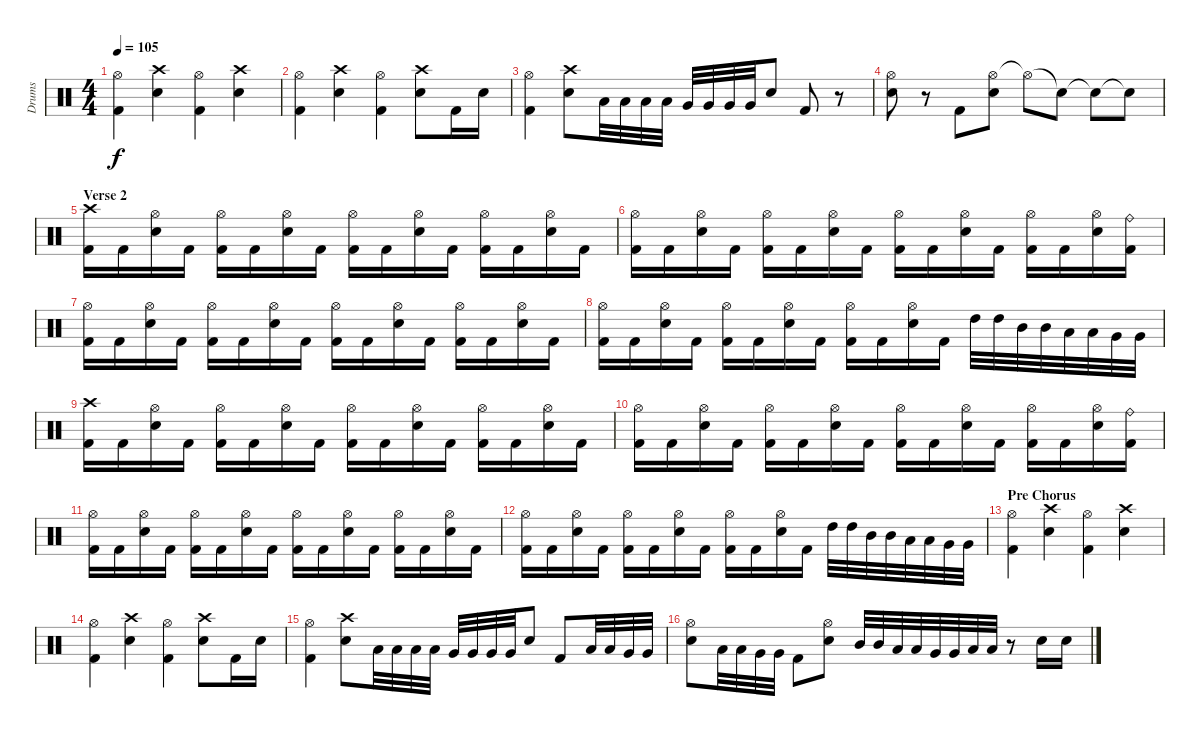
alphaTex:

\track ("Drums" "Drums") {instrument percussion}
\staff {score}
\articulation defaults
\ts (4 4)
\tempo 105
\clef neutral
\ks c
("Hi-Hat (open)" "Kick (hit) 2").4{dy f} ("Crash high (hit)" "Electric Snare (hit)").4 ("Hi-Hat (open)" "Kick (hit) 2").4 ("Crash high (hit)" "Electric Snare (hit)").4 |
("Hi-Hat (open)" "Kick (hit) 2").4 ("Crash high (hit)" "Electric Snare (hit)").4 ("Hi-Hat (open)" "Kick (hit) 2").4 ("Crash high (hit)" "Electric Snare (hit)").8 "Kick (hit) 2".16 "Electric Snare (hit)".16 |
("Hi-Hat (open)" "Kick (hit) 2").4 ("Crash high (hit)" "Electric Snare (hit)").8 "Low Tom (hit)".32 "Low Tom (hit)".32 "Low Tom (hit)".32 "Low Tom (hit)".32 "Very Low Tom (hit)".32 "Very Low Tom (hit)".32 "Very Low Tom (hit)".32 "Very Low Tom (hit)".32 "Electric Snare (hit)".8 "Kick (hit) 2".8 r.8 |
("Hi-Hat (open)" "Electric Snare (hit)").8 r.8 "Kick (hit) 2".8 ("Hi-Hat (open)" "Electric Snare (hit)").8 "Hi-Hat (open)"{t}.8 "Snare (hit)"{t}.8 "Snare (hit)"{t}.8 "Snare (hit)"{t}.8 |
\section ("" "Verse 2")
("Crash high (hit)" "Kick (hit) 2").16 "Kick (hit) 2".16 ("Hi-Hat (open)" "Electric Snare (hit)").16 "Kick (hit) 2".16 ("Hi-Hat (open)" "Kick (hit) 2").16 "Kick (hit) 2".16 ("Hi-Hat (open)" "Electric Snare (hit)").16 "Kick (hit) 2".16 ("Hi-Hat (open)" "Kick (hit) 2").16 "Kick (hit) 2".16 ("Hi-Hat (open)" "Electric Snare (hit)").16 "Kick (hit) 2".16 ("Hi-Hat (open)" "Kick (hit) 2").16 "Kick (hit) 2".16 ("Hi-Hat (open)" "Electric Snare (hit)").16 "Kick (hit) 2".16 |
("Hi-Hat (open)" "Kick (hit) 2").16 "Kick (hit) 2".16 ("Hi-Hat (open)" "Electric Snare (hit)").16 "Kick (hit) 2".16 ("Hi-Hat (open)" "Kick (hit) 2").16 "Kick (hit) 2".16 ("Hi-Hat (open)" "Electric Snare (hit)").16 "Kick (hit) 2".16 ("Hi-Hat (open)" "Kick (hit) 2").16 "Kick (hit) 2".16 ("Hi-Hat (open)" "Electric Snare (hit)").16 "Kick (hit) 2".16 ("Hi-Hat (open)" "Kick (hit) 2").16 "Kick (hit) 2".16 ("Hi-Hat (open)" "Electric Snare (hit)").16 ("Ride (bell)" "Kick (hit) 2").16 |
("Hi-Hat (open)" "Kick (hit) 2").16 "Kick (hit) 2".16 ("Hi-Hat (open)" "Electric Snare (hit)").16 "Kick (hit) 2".16 ("Hi-Hat (open)" "Kick (hit) 2").16 "Kick (hit) 2".16 ("Hi-Hat (open)" "Electric Snare (hit)").16 "Kick (hit) 2".16 ("Hi-Hat (open)" "Kick (hit) 2").16 "Kick (hit) 2".16 ("Hi-Hat (open)" "Electric Snare (hit)").16 "Kick (hit) 2".16 ("Hi-Hat (open)" "Kick (hit) 2").16 "Kick (hit) 2".16 ("Hi-Hat (open)" "Electric Snare (hit)").16 "Kick (hit) 2".16 |
("Hi-Hat (open)" "Kick (hit) 2").16 "Kick (hit) 2".16 ("Hi-Hat (open)" "Electric Snare (hit)").16 "Kick (hit) 2".16 ("Hi-Hat (open)" "Kick (hit) 2").16 "Kick (hit) 2".16 ("Hi-Hat (open)" "Electric Snare (hit)").16 "Kick (hit) 2".16 ("Hi-Hat (open)" "Kick (hit) 2").16 "Kick (hit) 2".16 ("Hi-Hat (open)" "Electric Snare (hit)").16 "Kick (hit) 2".16 "High Tom (hit)".32 "High Tom (hit)".32 "Mid Tom (hit)".32 "Mid Tom (hit)".32 "Low Tom (hit)".32 "Low Tom (hit)".32 "Very Low Tom (hit)".32 "Very Low Tom (hit)".32 |
("Crash high (hit)" "Kick (hit) 2").16 "Kick (hit) 2".16 ("Hi-Hat (open)" "Electric Snare (hit)").16 "Kick (hit) 2".16 ("Hi-Hat (open)" "Kick (hit) 2").16 "Kick (hit) 2".16 ("Hi-Hat (open)" "Electric Snare (hit)").16 "Kick (hit) 2".16 ("Hi-Hat (open)" "Kick (hit) 2").16 "Kick (hit) 2".16 ("Hi-Hat (open)" "Electric Snare (hit)").16 "Kick (hit) 2".16 ("Hi-Hat (open)" "Kick (hit) 2").16 "Kick (hit) 2".16 ("Hi-Hat (open)" "Electric Snare (hit)").16 "Kick (hit) 2".16 |
("Hi-Hat (open)" "Kick (hit) 2").16 "Kick (hit) 2".16 ("Hi-Hat (open)" "Electric Snare (hit)").16 "Kick (hit) 2".16 ("Hi-Hat (open)" "Kick (hit) 2").16 "Kick (hit) 2".16 ("Hi-Hat (open)" "Electric Snare (hit)").16 "Kick (hit) 2".16 ("Hi-Hat (open)" "Kick (hit) 2").16 "Kick (hit) 2".16 ("Hi-Hat (open)" "Electric Snare (hit)").16 "Kick (hit) 2".16 ("Hi-Hat (open)" "Kick (hit) 2").16 "Kick (hit) 2".16 ("Hi-Hat (open)" "Electric Snare (hit)").16 ("Ride (bell)" "Kick (hit) 2").16 |
("Hi-Hat (open)" "Kick (hit) 2").16 "Kick (hit) 2".16 ("Hi-Hat (open)" "Electric Snare (hit)").16 "Kick (hit) 2".16 ("Hi-Hat (open)" "Kick (hit) 2").16 "Kick (hit) 2".16 ("Hi-Hat (open)" "Electric Snare (hit)").16 "Kick (hit) 2".16 ("Hi-Hat (open)" "Kick (hit) 2").16 "Kick (hit) 2".16 ("Hi-Hat (open)" "Electric Snare (hit)").16 "Kick (hit) 2".16 ("Hi-Hat (open)" "Kick (hit) 2").16 "Kick (hit) 2".16 ("Hi-Hat (open)" "Electric Snare (hit)").16 "Kick (hit) 2".16 |
("Hi-Hat (open)" "Kick (hit) 2").16 "Kick (hit) 2".16 ("Hi-Hat (open)" "Electric Snare (hit)").16 "Kick (hit) 2".16 ("Hi-Hat (open)" "Kick (hit) 2").16 "Kick (hit) 2".16 ("Hi-Hat (open)" "Electric Snare (hit)").16 "Kick (hit) 2".16 ("Hi-Hat (open)" "Kick (hit) 2").16 "Kick (hit) 2".16 ("Hi-Hat (open)" "Electric Snare (hit)").16 "Kick (hit) 2".16 "High Tom (hit)".32 "High Tom (hit)".32 "Mid Tom (hit)".32 "Mid Tom (hit)".32 "Low Tom (hit)".32 "Low Tom (hit)".32 "Very Low Tom (hit)".32 "Very Low Tom (hit)".32 |
\section ("" "Pre Chorus")
("Hi-Hat (open)" "Kick (hit) 2").4 ("Crash high (hit)" "Electric Snare (hit)").4 ("Hi-Hat (open)" "Kick (hit) 2").4 ("Crash high (hit)" "Electric Snare (hit)").4 |
("Hi-Hat (open)" "Kick (hit) 2").4 ("Crash high (hit)" "Electric Snare (hit)").4 ("Hi-Hat (open)" "Kick (hit) 2").4 ("Crash high (hit)" "Electric Snare (hit)").8 "Kick (hit) 2".16 "Electric Snare (hit)".16 |
("Hi-Hat (open)" "Kick (hit) 2").4 ("Crash high (hit)" "Electric Snare (hit)").8 "Low Tom (hit)".32 "Low Tom (hit)".32 "Low Tom (hit)".32 "Low Tom (hit)".32 "Very Low Tom (hit)".32 "Very Low Tom (hit)".32 "Very Low Tom (hit)".32 "Very Low Tom (hit)".32 "Electric Snare (hit)".8 "Kick (hit) 2".8 "Low Tom (hit)".32 "Low Tom (hit)".32 "Very Low Tom (hit)".32 "Very Low Tom (hit)".32 |
("Hi-Hat (open)" "Electric Snare (hit)").8 "Low Tom (hit)".32 "Low Tom (hit)".32 "Very Low Tom (hit)".32 "Very Low Tom (hit)".32 "Kick (hit) 2".8 ("Hi-Hat (open)" "Electric Snare (hit)").8 "Mid Tom (hit)".32 "Mid Tom (hit)".32 "Low Tom (hit)".32 "Low Tom (hit)".32 "Very Low Tom (hit)".32 "Very Low Tom (hit)".32 "Low Floor Tom (hit)".32 "Low Floor Tom (hit)".32 r.8 "Electric Snare (hit)".16 "Electric Snare (hit)".16
